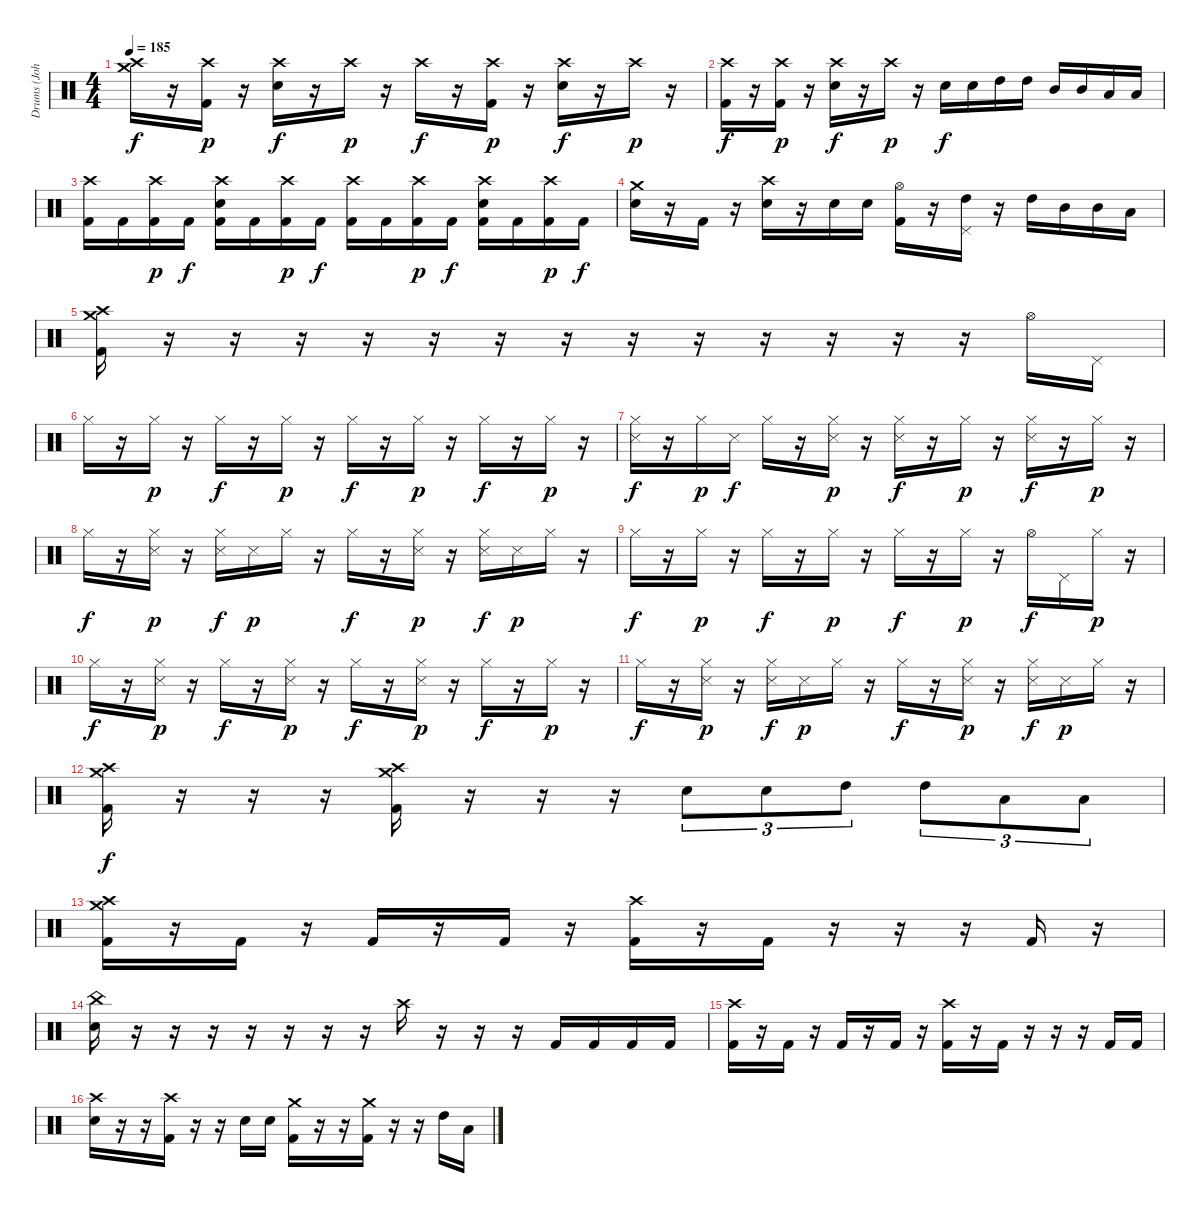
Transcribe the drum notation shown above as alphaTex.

\track ("Drums (Johno)" "Drums (Joh") {instrument percussion}
\staff {score}
\articulation defaults
\ts (4 4)
\tempo 185
\clef neutral
\ks c
("Crash medium (hit)" "Crash high (hit)").16{dy f} r.16 ("Crash high (hit)" "Kick (hit) 2").16{dy p} r.16 ("Crash high (hit)" "Electric Snare (hit)").16{dy f} r.16 "Crash high (hit)".16{dy p} r.16 "Crash high (hit)".16{dy f} r.16 ("Crash high (hit)" "Kick (hit) 2").16{dy p} r.16 ("Crash high (hit)" "Electric Snare (hit)").16{dy f} r.16 "Crash high (hit)".16{dy p} r.16 |
("Crash high (hit)" "Kick (hit) 2").16{dy f} r.16 ("Crash high (hit)" "Kick (hit) 2").16{dy p} r.16 ("Crash high (hit)" "Electric Snare (hit)").16{dy f} r.16 "Crash high (hit)".16{dy p} r.16 "Electric Snare (hit)".16{dy f} "Electric Snare (hit)".16 "High Tom (hit)".16 "High Tom (hit)".16 "Mid Tom (hit)".16 "Mid Tom (hit)".16 "Low Floor Tom (hit)".16 "Low Floor Tom (hit)".16 |
("Crash high (hit)" "Kick (hit) 2").16 "Kick (hit) 2".16 ("Crash high (hit)" "Kick (hit) 2").16{dy p} "Kick (hit) 2".16{dy f} ("Crash high (hit)" "Electric Snare (hit)" "Kick (hit) 2").16 "Kick (hit) 2".16 ("Crash high (hit)" "Kick (hit) 2").16{dy p} "Kick (hit) 2".16{dy f} ("Crash high (hit)" "Kick (hit) 2").16 "Kick (hit) 2".16 ("Crash high (hit)" "Kick (hit) 2").16{dy p} "Kick (hit) 2".16{dy f} ("Crash high (hit)" "Electric Snare (hit)" "Kick (hit) 2").16 "Kick (hit) 2".16 ("Crash high (hit)" "Kick (hit) 2").16{dy p} "Kick (hit) 2".16{dy f} |
("Crash medium (hit)" "Electric Snare (hit)").16 r.16 "Kick (hit) 2".16 r.16 ("Crash high (hit)" "Electric Snare (hit)").16 r.16 "Electric Snare (hit)".16 "Electric Snare (hit)".16 ("Hi-Hat (open)" "Kick (hit) 2").16 r.16 ("Pedal Hi-Hat (hit)" "High Tom (hit)").16 r.16 "High Tom (hit)".16 "Mid Tom (hit)".16 "Mid Tom (hit)".16 "Low Floor Tom (hit)".16 |
("Crash medium (hit)" "Crash high (hit)" "Kick (hit) 2").16 r.16 r.16 r.16 r.16 r.16 r.16 r.16 r.16 r.16 r.16 r.16 r.16 r.16 "Hi-Hat (open)".16 "Pedal Hi-Hat (hit)".16 |
"Hi-Hat (closed)".16 r.16 "Hi-Hat (closed)".16{dy p} r.16 "Hi-Hat (closed)".16{dy f} r.16 "Hi-Hat (closed)".16{dy p} r.16 "Hi-Hat (closed)".16{dy f} r.16 "Hi-Hat (closed)".16{dy p} r.16 "Hi-Hat (closed)".16{dy f} r.16 "Hi-Hat (closed)".16{dy p} r.16 |
("Hi-Hat (closed)" "Snare (side stick) 3").16{dy f} r.16 "Hi-Hat (closed)".16{dy p} "Snare (side stick) 3".16{dy f} "Hi-Hat (closed)".16 r.16 ("Hi-Hat (closed)" "Snare (side stick) 3").16{dy p} r.16 ("Hi-Hat (closed)" "Snare (side stick) 3").16{dy f} r.16 "Hi-Hat (closed)".16{dy p} r.16 ("Hi-Hat (closed)" "Snare (side stick) 3").16{dy f} r.16 "Hi-Hat (closed)".16{dy p} r.16 |
"Hi-Hat (closed)".16{dy f} r.16 ("Hi-Hat (closed)" "Snare (side stick) 3").16{dy p} r.16 ("Hi-Hat (closed)" "Snare (side stick) 3").16{dy f} "Snare (side stick) 3".16{dy p} "Hi-Hat (closed)".16 r.16 "Hi-Hat (closed)".16{dy f} r.16 ("Hi-Hat (closed)" "Snare (side stick) 3").16{dy p} r.16 ("Hi-Hat (closed)" "Snare (side stick) 3").16{dy f} "Snare (side stick) 3".16{dy p} "Hi-Hat (closed)".16 r.16 |
"Hi-Hat (closed)".16{dy f} r.16 "Hi-Hat (closed)".16{dy p} r.16 "Hi-Hat (closed)".16{dy f} r.16 "Hi-Hat (closed)".16{dy p} r.16 "Hi-Hat (closed)".16{dy f} r.16 "Hi-Hat (closed)".16{dy p} r.16 "Hi-Hat (open)".16{dy f} "Pedal Hi-Hat (hit)".16 "Hi-Hat (closed)".16{dy p} r.16 |
"Hi-Hat (closed)".16{dy f} r.16 ("Hi-Hat (closed)" "Snare (side stick) 3").16{dy p} r.16 "Hi-Hat (closed)".16{dy f} r.16 ("Hi-Hat (closed)" "Snare (side stick) 3").16{dy p} r.16 "Hi-Hat (closed)".16{dy f} r.16 ("Hi-Hat (closed)" "Snare (side stick) 3").16{dy p} r.16 "Hi-Hat (closed)".16{dy f} r.16 "Hi-Hat (closed)".16{dy p} r.16 |
"Hi-Hat (closed)".16{dy f} r.16 ("Hi-Hat (closed)" "Snare (side stick) 3").16{dy p} r.16 ("Hi-Hat (closed)" "Snare (side stick) 3").16{dy f} "Snare (side stick) 3".16{dy p} "Hi-Hat (closed)".16 r.16 "Hi-Hat (closed)".16{dy f} r.16 ("Hi-Hat (closed)" "Snare (side stick) 3").16{dy p} r.16 ("Hi-Hat (closed)" "Snare (side stick) 3").16{dy f} "Snare (side stick) 3".16{dy p} "Hi-Hat (closed)".16 r.16 |
("Crash high (hit)" "Crash medium (hit)" "Kick (hit) 2").16{dy f} r.16 r.16 r.16 ("Crash high (hit)" "Crash medium (hit)" "Kick (hit) 2").16 r.16 r.16 r.16 "Electric Snare (hit)".8{tu (3 2)} "Electric Snare (hit)".8{tu (3 2)} "High Tom (hit)".8{tu (3 2)} "High Tom (hit)".8{tu (3 2)} "Low Floor Tom (hit)".8{tu (3 2)} "Low Floor Tom (hit)".8{tu (3 2)} |
("Crash medium (hit)" "Crash high (hit)" "Kick (hit) 2").16 r.16 "Kick (hit) 2".16 r.16 "Kick (hit) 2".16 r.16 "Kick (hit) 2".16 r.16 ("Crash high (hit)" "Kick (hit) 2").16 r.16 "Kick (hit) 2".16 r.16 r.16 r.16 "Kick (hit) 2".16 r.16 |
("China (hit)" "Electric Snare (hit)").16 r.16 r.16 r.16 r.16 r.16 r.16 r.16 "Crash high (hit)".16 r.16 r.16 r.16 "Kick (hit) 2".16 "Kick (hit) 2".16 "Kick (hit) 2".16 "Kick (hit) 2".16 |
("Crash high (hit)" "Kick (hit) 2").16 r.16 "Kick (hit) 2".16 r.16 "Kick (hit) 2".16 r.16 "Kick (hit) 2".16 r.16 ("Crash high (hit)" "Kick (hit) 2").16 r.16 "Kick (hit) 2".16 r.16 r.16 r.16 "Kick (hit) 2".16 "Kick (hit) 2".16 |
("Crash high (hit)" "Electric Snare (hit)").16 r.16 r.16 ("Crash high (hit)" "Kick (hit) 2").16 r.16 r.16 "Electric Snare (hit)".16 "Electric Snare (hit)".16 ("Crash medium (hit)" "Kick (hit) 2").16 r.16 r.16 ("Crash medium (hit)" "Kick (hit) 2").16 r.16 r.16 "High Tom (hit)".16 "Low Floor Tom (hit)".16
